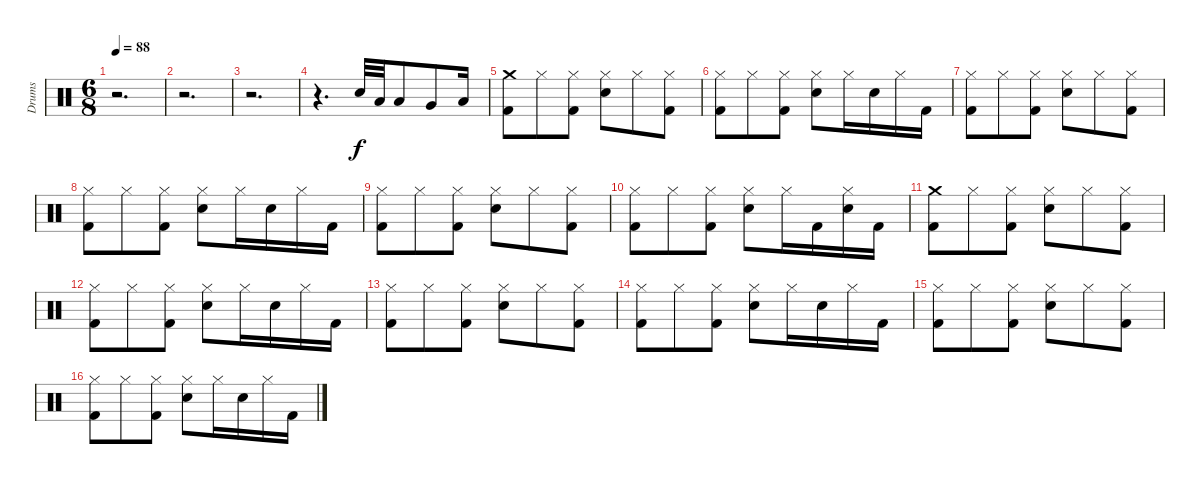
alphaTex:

\track ("Drums" "Drums") {instrument percussion}
\staff {score}
\articulation defaults
\ts (6 8)
\tempo 88
\clef neutral
\ks c
r.2{d dy f} |
r.2{d} |
r.2{d} |
r.4{d} "Electric Snare (hit)".32 "Low Tom (hit)".32 "Low Tom (hit)".8 "Very Low Tom (hit)".8 "Low Floor Tom (hit)".16 |
("Crash medium (hit)" "Kick (hit) 2").8 "Hi-Hat (closed)".8 ("Hi-Hat (closed)" "Kick (hit) 2").8 ("Hi-Hat (closed)" "Electric Snare (hit)").8 "Hi-Hat (closed)".8 ("Hi-Hat (closed)" "Kick (hit) 2").8 |
("Hi-Hat (closed)" "Kick (hit) 2").8 "Hi-Hat (closed)".8 ("Hi-Hat (closed)" "Kick (hit) 2").8 ("Hi-Hat (closed)" "Electric Snare (hit)").8 "Hi-Hat (closed)".16 "Electric Snare (hit)".16 "Hi-Hat (closed)".16 "Kick (hit) 2".16 |
("Hi-Hat (closed)" "Kick (hit) 2").8 "Hi-Hat (closed)".8 ("Hi-Hat (closed)" "Kick (hit) 2").8 ("Hi-Hat (closed)" "Electric Snare (hit)").8 "Hi-Hat (closed)".8 ("Hi-Hat (closed)" "Kick (hit) 2").8 |
("Hi-Hat (closed)" "Kick (hit) 2").8 "Hi-Hat (closed)".8 ("Hi-Hat (closed)" "Kick (hit) 2").8 ("Hi-Hat (closed)" "Electric Snare (hit)").8 "Hi-Hat (closed)".16 "Electric Snare (hit)".16 "Hi-Hat (closed)".16 "Kick (hit) 2".16 |
("Hi-Hat (closed)" "Kick (hit) 2").8 "Hi-Hat (closed)".8 ("Hi-Hat (closed)" "Kick (hit) 2").8 ("Hi-Hat (closed)" "Electric Snare (hit)").8 "Hi-Hat (closed)".8 ("Hi-Hat (closed)" "Kick (hit) 2").8 |
("Hi-Hat (closed)" "Kick (hit) 2").8 "Hi-Hat (closed)".8 ("Hi-Hat (closed)" "Kick (hit) 2").8 ("Hi-Hat (closed)" "Electric Snare (hit)").8 "Hi-Hat (closed)".16 "Kick (hit) 2".16 ("Hi-Hat (closed)" "Electric Snare (hit)").16 "Kick (hit) 2".16 |
("Crash medium (hit)" "Kick (hit) 2").8 "Hi-Hat (closed)".8 ("Hi-Hat (closed)" "Kick (hit) 2").8 ("Hi-Hat (closed)" "Electric Snare (hit)").8 "Hi-Hat (closed)".8 ("Hi-Hat (closed)" "Kick (hit) 2").8 |
("Hi-Hat (closed)" "Kick (hit) 2").8 "Hi-Hat (closed)".8 ("Hi-Hat (closed)" "Kick (hit) 2").8 ("Hi-Hat (closed)" "Electric Snare (hit)").8 "Hi-Hat (closed)".16 "Electric Snare (hit)".16 "Hi-Hat (closed)".16 "Kick (hit) 2".16 |
("Hi-Hat (closed)" "Kick (hit) 2").8 "Hi-Hat (closed)".8 ("Hi-Hat (closed)" "Kick (hit) 2").8 ("Hi-Hat (closed)" "Electric Snare (hit)").8 "Hi-Hat (closed)".8 ("Hi-Hat (closed)" "Kick (hit) 2").8 |
("Hi-Hat (closed)" "Kick (hit) 2").8 "Hi-Hat (closed)".8 ("Hi-Hat (closed)" "Kick (hit) 2").8 ("Hi-Hat (closed)" "Electric Snare (hit)").8 "Hi-Hat (closed)".16 "Electric Snare (hit)".16 "Hi-Hat (closed)".16 "Kick (hit) 2".16 |
("Hi-Hat (closed)" "Kick (hit) 2").8 "Hi-Hat (closed)".8 ("Hi-Hat (closed)" "Kick (hit) 2").8 ("Hi-Hat (closed)" "Electric Snare (hit)").8 "Hi-Hat (closed)".8 ("Hi-Hat (closed)" "Kick (hit) 2").8 |
("Hi-Hat (closed)" "Kick (hit) 2").8 "Hi-Hat (closed)".8 ("Hi-Hat (closed)" "Kick (hit) 2").8 ("Hi-Hat (closed)" "Electric Snare (hit)").8 "Hi-Hat (closed)".16 "Electric Snare (hit)".16 "Hi-Hat (closed)".16 "Kick (hit) 2".16
